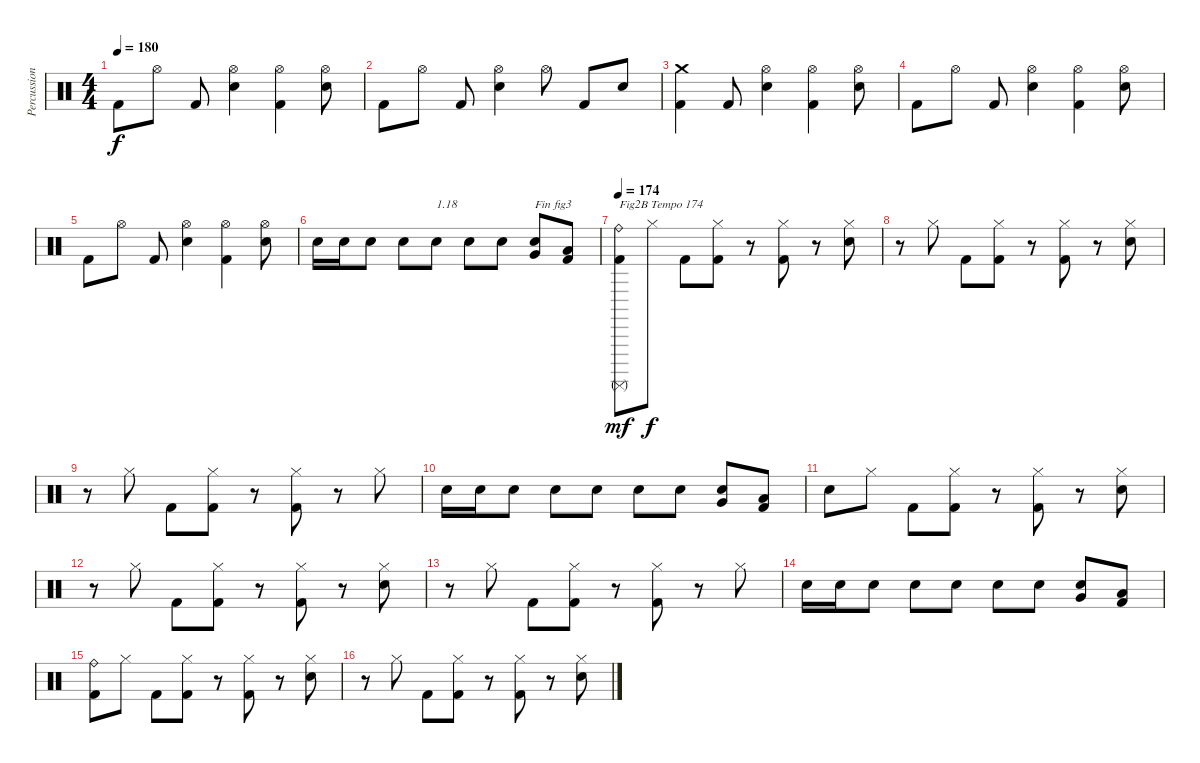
\track ("Percussions" "Percussion") {instrument percussion}
\staff {score}
\articulation defaults
\ts (4 4)
\tempo 180
\clef neutral
\ks c "Kick (hit) 2".8{dy f} "Hi-Hat (open)".8 "Kick (hit) 2".8
("Electric Snare (hit)" "Hi-Hat (open)").4 ("Kick (hit) 2" "Hi-Hat (open)").4 ("Electric Snare (hit)" "Hi-Hat (open)").8 |
"Kick (hit) 2".8 "Hi-Hat (open)".8 "Kick (hit) 2".8 ("Electric Snare (hit)" "Hi-Hat (open)").4 "Hi-Hat (open)".8 "Kick (hit) 2".8 "Electric Snare (hit)".8 |
("Kick (hit) 2" "Crash medium (hit)").4 "Kick (hit) 2".8 ("Electric Snare (hit)" "Hi-Hat (open)").4 ("Kick (hit) 2" "Hi-Hat (open)").4 ("Electric Snare (hit)" "Hi-Hat (open)").8 |
"Kick (hit) 2".8 "Hi-Hat (open)".8 "Kick (hit) 2".8 ("Electric Snare (hit)" "Hi-Hat (open)").4 ("Kick (hit) 2" "Hi-Hat (open)").4 ("Electric Snare (hit)" "Hi-Hat (open)").8 |
"Kick (hit) 2".8 "Hi-Hat (open)".8 "Kick (hit) 2".8 ("Electric Snare (hit)" "Hi-Hat (open)").4 ("Kick (hit) 2" "Hi-Hat (open)").4 ("Electric Snare (hit)" "Hi-Hat (open)").8 |
"Electric Snare (hit)".16 "Electric Snare (hit)".16 "Electric Snare (hit)".8 "Electric Snare (hit)".8 "Electric Snare (hit)".8{txt "1.18"} "Electric Snare (hit)".8 "Electric Snare (hit)".8 ("Electric Snare (hit)" "Very Low Tom (hit)").8{txt "Fin fig3"} ("Kick (hit) 2" "Low Floor Tom (hit)").8 |
\tempo 174
("Kick (hit) 2" "Surdo (mute)" "Ride (bell)").8{txt "Fig2B Tempo 174" dy mf} "Hi-Hat (closed)".8{dy f} "Kick (hit) 2".8 ("Kick (hit) 2" "Hi-Hat (closed)").8 r.8 ("Kick (hit) 2" "Hi-Hat (closed)").8 r.8 ("Electric Snare (hit)" "Hi-Hat (closed)").8 |
r.8 "Hi-Hat (closed)".8 "Kick (hit) 2".8 ("Kick (hit) 2" "Hi-Hat (closed)").8 r.8 ("Kick (hit) 2" "Hi-Hat (closed)").8 r.8 ("Electric Snare (hit)" "Hi-Hat (closed)").8 |
r.8 "Hi-Hat (closed)".8 "Kick (hit) 2".8 ("Kick (hit) 2" "Hi-Hat (closed)").8 r.8 ("Kick (hit) 2" "Hi-Hat (closed)").8 r.8 "Hi-Hat (closed)".8 |
"Electric Snare (hit)".16 "Electric Snare (hit)".16 "Electric Snare (hit)".8 "Electric Snare (hit)".8 "Electric Snare (hit)".8 "Electric Snare (hit)".8 "Electric Snare (hit)".8 ("Electric Snare (hit)" "Very Low Tom (hit)").8 ("Kick (hit) 2" "Low Floor Tom (hit)").8 |
"Electric Snare (hit)".8 "Hi-Hat (closed)".8 "Kick (hit) 2".8 ("Kick (hit) 2" "Hi-Hat (closed)").8 r.8 ("Kick (hit) 2" "Hi-Hat (closed)").8 r.8 ("Electric Snare (hit)" "Hi-Hat (closed)").8 |
r.8 "Hi-Hat (closed)".8 "Kick (hit) 2".8 ("Kick (hit) 2" "Hi-Hat (closed)").8 r.8 ("Kick (hit) 2" "Hi-Hat (closed)").8 r.8 ("Electric Snare (hit)" "Hi-Hat (closed)").8 |
r.8 "Hi-Hat (closed)".8 "Kick (hit) 2".8 ("Kick (hit) 2" "Hi-Hat (closed)").8 r.8 ("Kick (hit) 2" "Hi-Hat (closed)").8 r.8 "Hi-Hat (closed)".8 |
"Electric Snare (hit)".16 "Electric Snare (hit)".16 "Electric Snare (hit)".8 "Electric Snare (hit)".8 "Electric Snare (hit)".8 "Electric Snare (hit)".8 "Electric Snare (hit)".8 ("Electric Snare (hit)" "Very Low Tom (hit)").8 ("Kick (hit) 2" "Low Floor Tom (hit)").8 |
("Kick (hit) 2" "Ride (bell)").8 "Hi-Hat (closed)".8 "Kick (hit) 2".8 ("Kick (hit) 2" "Hi-Hat (closed)").8 r.8 ("Kick (hit) 2" "Hi-Hat (closed)").8 r.8 ("Electric Snare (hit)" "Hi-Hat (closed)").8 |
r.8 "Hi-Hat (closed)".8 "Kick (hit) 2".8 ("Kick (hit) 2" "Hi-Hat (closed)").8 r.8 ("Kick (hit) 2" "Hi-Hat (closed)").8 r.8 ("Electric Snare (hit)" "Hi-Hat (closed)").8
